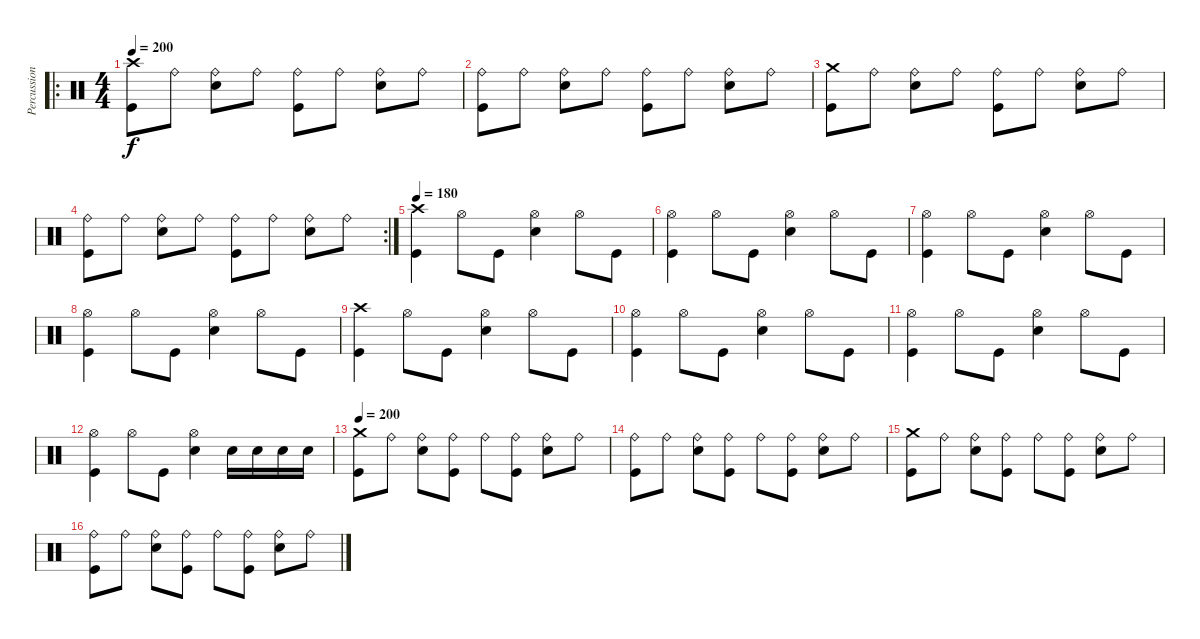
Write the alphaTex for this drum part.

\track ("Percussions" "Percussion") {instrument percussion}
\staff {score}
\articulation defaults
\ro
\ts (4 4)
\tempo 200
\clef neutral
\ks c
("Kick (hit)" "Crash high (hit)").8{dy f} "Ride (bell)".8 ("Electric Snare (hit)" "Ride (bell)").8 "Ride (bell)".8 ("Kick (hit)" "Ride (bell)").8 "Ride (bell)".8 ("Electric Snare (hit)" "Ride (bell)").8 "Ride (bell)".8 |
("Kick (hit)" "Ride (bell)").8 "Ride (bell)".8 ("Electric Snare (hit)" "Ride (bell)").8 "Ride (bell)".8 ("Kick (hit)" "Ride (bell)").8 "Ride (bell)".8 ("Electric Snare (hit)" "Ride (bell)").8 "Ride (bell)".8 |
("Kick (hit)" "Crash medium (hit)").8 "Ride (bell)".8 ("Electric Snare (hit)" "Ride (bell)").8 "Ride (bell)".8 ("Kick (hit)" "Ride (bell)").8 "Ride (bell)".8 ("Electric Snare (hit)" "Ride (bell)").8 "Ride (bell)".8 |
\rc 2
("Kick (hit)" "Ride (bell)").8 "Ride (bell)".8 ("Electric Snare (hit)" "Ride (bell)").8 "Ride (bell)".8 ("Kick (hit)" "Ride (bell)").8 "Ride (bell)".8 ("Electric Snare (hit)" "Ride (bell)").8 "Ride (bell)".8 |
\tempo 180
("Kick (hit)" "Crash high (hit)").4 "Hi-Hat (open)".8 "Kick (hit)".8 ("Electric Snare (hit)" "Hi-Hat (open)").4 "Hi-Hat (open)".8 "Kick (hit)".8 |
("Kick (hit)" "Hi-Hat (open)").4 "Hi-Hat (open)".8 "Kick (hit)".8 ("Electric Snare (hit)" "Hi-Hat (open)").4 "Hi-Hat (open)".8 "Kick (hit)".8 |
("Kick (hit)" "Hi-Hat (open)").4 "Hi-Hat (open)".8 "Kick (hit)".8 ("Electric Snare (hit)" "Hi-Hat (open)").4 "Hi-Hat (open)".8 "Kick (hit)".8 |
("Kick (hit)" "Hi-Hat (open)").4 "Hi-Hat (open)".8 "Kick (hit)".8 ("Electric Snare (hit)" "Hi-Hat (open)").4 "Hi-Hat (open)".8 "Kick (hit)".8 |
("Kick (hit)" "Crash high (hit)").4 "Hi-Hat (open)".8 "Kick (hit)".8 ("Electric Snare (hit)" "Hi-Hat (open)").4 "Hi-Hat (open)".8 "Kick (hit)".8 |
("Kick (hit)" "Hi-Hat (open)").4 "Hi-Hat (open)".8 "Kick (hit)".8 ("Electric Snare (hit)" "Hi-Hat (open)").4 "Hi-Hat (open)".8 "Kick (hit)".8 |
("Kick (hit)" "Hi-Hat (open)").4 "Hi-Hat (open)".8 "Kick (hit)".8 ("Electric Snare (hit)" "Hi-Hat (open)").4 "Hi-Hat (open)".8 "Kick (hit)".8 |
("Kick (hit)" "Hi-Hat (open)").4 "Hi-Hat (open)".8 "Kick (hit)".8 ("Electric Snare (hit)" "Hi-Hat (open)").4 "Electric Snare (hit)".16 "Electric Snare (hit)".16 "Electric Snare (hit)".16 "Electric Snare (hit)".16 |
\tempo 200
("Kick (hit)" "Crash medium (hit)").8 "Ride (bell)".8 ("Electric Snare (hit)" "Ride (bell)").8 ("Kick (hit)" "Ride (bell)").8 "Ride (bell)".8 ("Kick (hit)" "Ride (bell)").8 ("Electric Snare (hit)" "Ride (bell)").8 "Ride (bell)".8 |
("Kick (hit)" "Ride (bell)").8 "Ride (bell)".8 ("Electric Snare (hit)" "Ride (bell)").8 ("Kick (hit)" "Ride (bell)").8 "Ride (bell)".8 ("Kick (hit)" "Ride (bell)").8 ("Electric Snare (hit)" "Ride (bell)").8 "Ride (bell)".8 |
("Kick (hit)" "Crash medium (hit)").8 "Ride (bell)".8 ("Electric Snare (hit)" "Ride (bell)").8 ("Kick (hit)" "Ride (bell)").8 "Ride (bell)".8 ("Kick (hit)" "Ride (bell)").8 ("Electric Snare (hit)" "Ride (bell)").8 "Ride (bell)".8 |
("Kick (hit)" "Ride (bell)").8 "Ride (bell)".8 ("Electric Snare (hit)" "Ride (bell)").8 ("Kick (hit)" "Ride (bell)").8 "Ride (bell)".8 ("Kick (hit)" "Ride (bell)").8 ("Electric Snare (hit)" "Ride (bell)").8 "Ride (bell)".8
